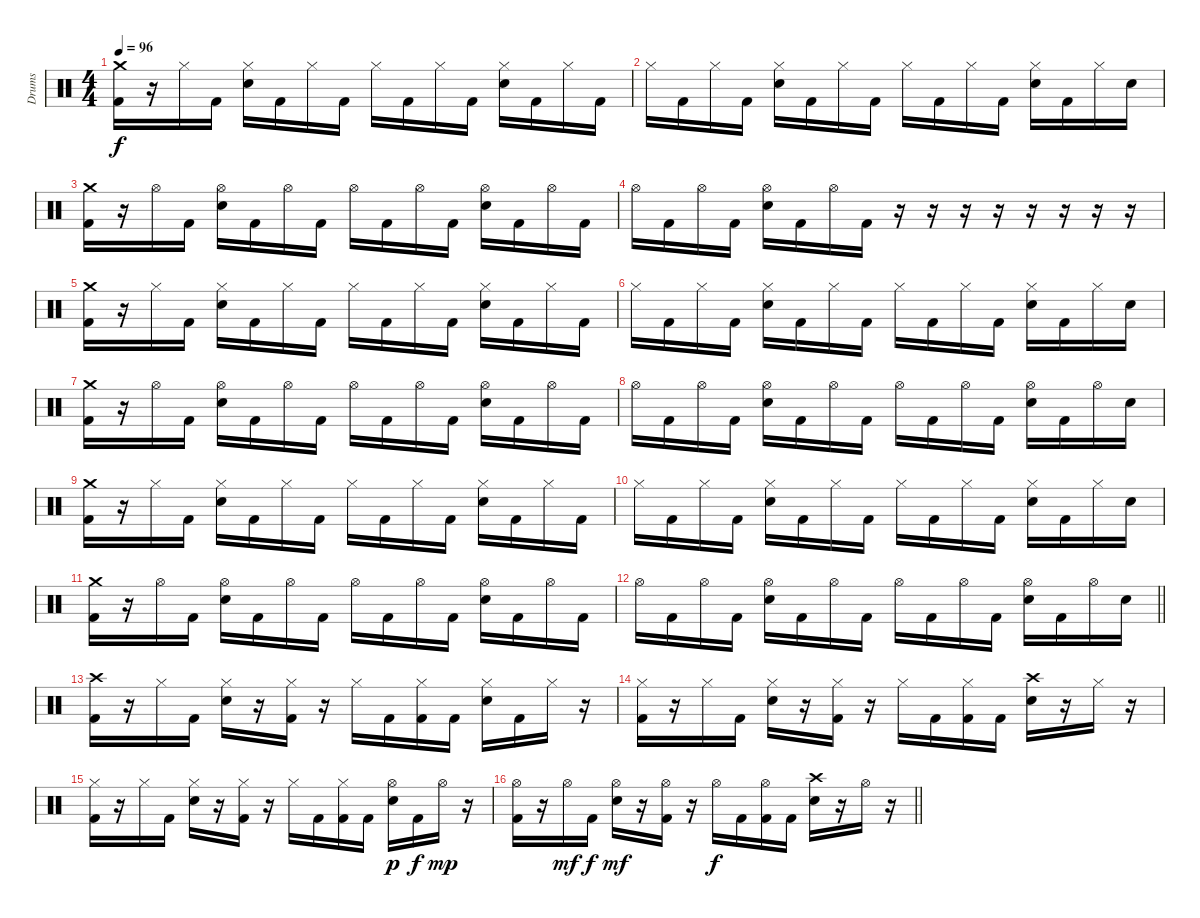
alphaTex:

\track ("Drums" "Drums") {instrument percussion}
\staff {score}
\articulation defaults
\ts (4 4)
\tempo 96
\clef neutral
\ks c
("Crash medium (hit)" "Kick (hit) 2").16{dy f} r.16 "Hi-Hat (closed)".16 "Kick (hit) 2".16 ("Hi-Hat (closed)" "Electric Snare (hit)").16 "Kick (hit) 2".16 "Hi-Hat (closed)".16 "Kick (hit) 2".16 "Hi-Hat (closed)".16 "Kick (hit) 2".16 "Hi-Hat (closed)".16 "Kick (hit) 2".16 ("Hi-Hat (closed)" "Electric Snare (hit)").16 "Kick (hit) 2".16 "Hi-Hat (closed)".16 "Kick (hit) 2".16 |
"Hi-Hat (closed)".16 "Kick (hit) 2".16 "Hi-Hat (closed)".16 "Kick (hit) 2".16 ("Hi-Hat (closed)" "Electric Snare (hit)").16 "Kick (hit) 2".16 "Hi-Hat (closed)".16 "Kick (hit) 2".16 "Hi-Hat (closed)".16 "Kick (hit) 2".16 "Hi-Hat (closed)".16 "Kick (hit) 2".16 ("Hi-Hat (closed)" "Electric Snare (hit)").16 "Kick (hit) 2".16 "Hi-Hat (closed)".16 "Electric Snare (hit)".16 |
("Crash medium (hit)" "Kick (hit) 2").16 r.16 "Hi-Hat (open)".16 "Kick (hit) 2".16 ("Hi-Hat (open)" "Electric Snare (hit)").16 "Kick (hit) 2".16 "Hi-Hat (open)".16 "Kick (hit) 2".16 "Hi-Hat (open)".16 "Kick (hit) 2".16 "Hi-Hat (open)".16 "Kick (hit) 2".16 ("Hi-Hat (open)" "Electric Snare (hit)").16 "Kick (hit) 2".16 "Hi-Hat (open)".16 "Kick (hit) 2".16 |
"Hi-Hat (open)".16 "Kick (hit) 2".16 "Hi-Hat (open)".16 "Kick (hit) 2".16 ("Hi-Hat (open)" "Electric Snare (hit)").16 "Kick (hit) 2".16 "Hi-Hat (open)".16 "Kick (hit) 2".16 r.16 r.16 r.16 r.16 r.16 r.16 r.16 r.16 |
("Crash medium (hit)" "Kick (hit) 2").16 r.16 "Hi-Hat (closed)".16 "Kick (hit) 2".16 ("Hi-Hat (closed)" "Electric Snare (hit)").16 "Kick (hit) 2".16 "Hi-Hat (closed)".16 "Kick (hit) 2".16 "Hi-Hat (closed)".16 "Kick (hit) 2".16 "Hi-Hat (closed)".16 "Kick (hit) 2".16 ("Hi-Hat (closed)" "Electric Snare (hit)").16 "Kick (hit) 2".16 "Hi-Hat (closed)".16 "Kick (hit) 2".16 |
"Hi-Hat (closed)".16 "Kick (hit) 2".16 "Hi-Hat (closed)".16 "Kick (hit) 2".16 ("Hi-Hat (closed)" "Electric Snare (hit)").16 "Kick (hit) 2".16 "Hi-Hat (closed)".16 "Kick (hit) 2".16 "Hi-Hat (closed)".16 "Kick (hit) 2".16 "Hi-Hat (closed)".16 "Kick (hit) 2".16 ("Hi-Hat (closed)" "Electric Snare (hit)").16 "Kick (hit) 2".16 "Hi-Hat (closed)".16 "Electric Snare (hit)".16 |
("Crash medium (hit)" "Kick (hit) 2").16 r.16 "Hi-Hat (open)".16 "Kick (hit) 2".16 ("Hi-Hat (open)" "Electric Snare (hit)").16 "Kick (hit) 2".16 "Hi-Hat (open)".16 "Kick (hit) 2".16 "Hi-Hat (open)".16 "Kick (hit) 2".16 "Hi-Hat (open)".16 "Kick (hit) 2".16 ("Hi-Hat (open)" "Electric Snare (hit)").16 "Kick (hit) 2".16 "Hi-Hat (open)".16 "Kick (hit) 2".16 |
"Hi-Hat (open)".16 "Kick (hit) 2".16 "Hi-Hat (open)".16 "Kick (hit) 2".16 ("Hi-Hat (open)" "Electric Snare (hit)").16 "Kick (hit) 2".16 "Hi-Hat (open)".16 "Kick (hit) 2".16 "Hi-Hat (open)".16 "Kick (hit) 2".16 "Hi-Hat (open)".16 "Kick (hit) 2".16 ("Hi-Hat (open)" "Electric Snare (hit)").16 "Kick (hit) 2".16 "Hi-Hat (open)".16 "Electric Snare (hit)".16 |
("Crash medium (hit)" "Kick (hit) 2").16 r.16 "Hi-Hat (closed)".16 "Kick (hit) 2".16 ("Hi-Hat (closed)" "Electric Snare (hit)").16 "Kick (hit) 2".16 "Hi-Hat (closed)".16 "Kick (hit) 2".16 "Hi-Hat (closed)".16 "Kick (hit) 2".16 "Hi-Hat (closed)".16 "Kick (hit) 2".16 ("Hi-Hat (closed)" "Electric Snare (hit)").16 "Kick (hit) 2".16 "Hi-Hat (closed)".16 "Kick (hit) 2".16 |
"Hi-Hat (closed)".16 "Kick (hit) 2".16 "Hi-Hat (closed)".16 "Kick (hit) 2".16 ("Hi-Hat (closed)" "Electric Snare (hit)").16 "Kick (hit) 2".16 "Hi-Hat (closed)".16 "Kick (hit) 2".16 "Hi-Hat (closed)".16 "Kick (hit) 2".16 "Hi-Hat (closed)".16 "Kick (hit) 2".16 ("Hi-Hat (closed)" "Electric Snare (hit)").16 "Kick (hit) 2".16 "Hi-Hat (closed)".16 "Electric Snare (hit)".16 |
("Crash medium (hit)" "Kick (hit) 2").16 r.16 "Hi-Hat (open)".16 "Kick (hit) 2".16 ("Hi-Hat (open)" "Electric Snare (hit)").16 "Kick (hit) 2".16 "Hi-Hat (open)".16 "Kick (hit) 2".16 "Hi-Hat (open)".16 "Kick (hit) 2".16 "Hi-Hat (open)".16 "Kick (hit) 2".16 ("Hi-Hat (open)" "Electric Snare (hit)").16 "Kick (hit) 2".16 "Hi-Hat (open)".16 "Kick (hit) 2".16 |
\barLineRight lightlight "Hi-Hat (open)".16 "Kick (hit) 2".16 "Hi-Hat (open)".16 "Kick (hit) 2".16
("Hi-Hat (open)" "Electric Snare (hit)").16 "Kick (hit) 2".16 "Hi-Hat (open)".16 "Kick (hit) 2".16 "Hi-Hat (open)".16 "Kick (hit) 2".16 "Hi-Hat (open)".16 "Kick (hit) 2".16 ("Hi-Hat (open)" "Electric Snare (hit)").16 "Kick (hit) 2".16 "Hi-Hat (open)".16 "Electric Snare (hit)".16 |
("Crash high (hit)" "Kick (hit) 2").16 r.16 "Hi-Hat (closed)".16 "Kick (hit) 2".16 ("Hi-Hat (closed)" "Electric Snare (hit)").16 r.16 ("Hi-Hat (closed)" "Kick (hit) 2").16 r.16 "Hi-Hat (closed)".16 "Kick (hit) 2".16 ("Hi-Hat (closed)" "Kick (hit) 2").16 "Kick (hit) 2".16 ("Hi-Hat (closed)" "Electric Snare (hit)").16 "Kick (hit) 2".16 "Hi-Hat (closed)".16 r.16 |
("Hi-Hat (closed)" "Kick (hit) 2").16 r.16 "Hi-Hat (closed)".16 "Kick (hit) 2".16 ("Hi-Hat (closed)" "Electric Snare (hit)").16 r.16 ("Hi-Hat (closed)" "Kick (hit) 2").16 r.16 "Hi-Hat (closed)".16 "Kick (hit) 2".16 ("Hi-Hat (closed)" "Kick (hit) 2").16 "Kick (hit) 2".16 ("Crash high (hit)" "Electric Snare (hit)").16 r.16 "Hi-Hat (closed)".16 r.16 |
("Hi-Hat (closed)" "Kick (hit) 2").16 r.16 "Hi-Hat (closed)".16 "Kick (hit) 2".16 ("Hi-Hat (closed)" "Electric Snare (hit)").16 r.16 ("Hi-Hat (closed)" "Kick (hit) 2").16 r.16 "Hi-Hat (closed)".16 "Kick (hit) 2".16 ("Hi-Hat (closed)" "Kick (hit) 2").16 "Kick (hit) 2".16 ("Hi-Hat (open)" "Electric Snare (hit)").16{dy p} "Kick (hit) 2".16{dy f} "Hi-Hat (open)".16{dy mp} r.16 |
\barLineRight lightlight
("Hi-Hat (open)" "Kick (hit) 2").16 r.16 "Hi-Hat (open)".16{dy mf} "Kick (hit) 2".16{dy f} ("Hi-Hat (open)" "Electric Snare (hit)").16{dy mf} r.16 ("Hi-Hat (open)" "Kick (hit) 2").16 r.16 "Hi-Hat (open)".16{dy f} "Kick (hit) 2".16 ("Hi-Hat (open)" "Kick (hit) 2").16 "Kick (hit) 2".16 ("Crash high (hit)" "Electric Snare (hit)").16 r.16 "Hi-Hat (open)".16 r.16
